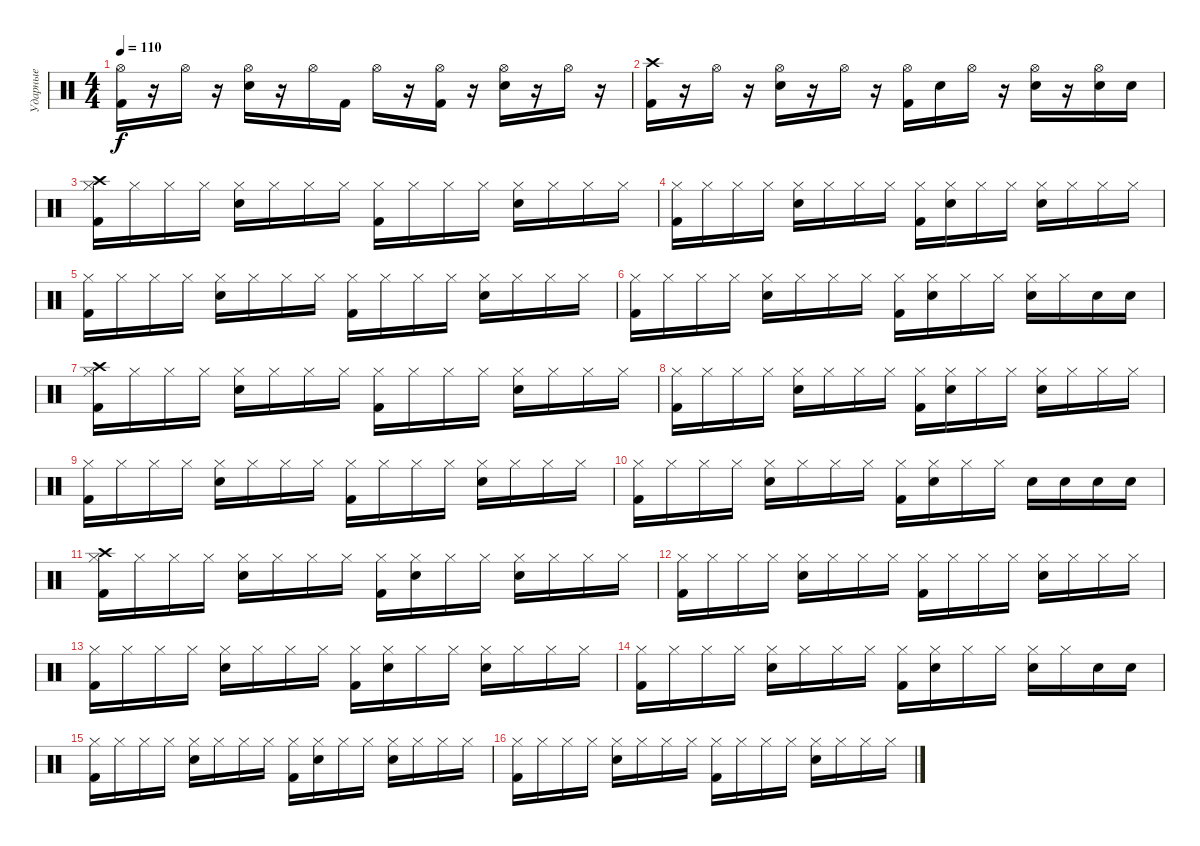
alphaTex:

\track ("Ударные" "Ударные") {instrument percussion}
\staff {score}
\articulation defaults
\ts (4 4)
\tempo 110
\clef neutral
\ks c
("Hi-Hat (open)" "Kick (hit) 2").16{dy f} r.16 "Hi-Hat (open)".16 r.16 ("Hi-Hat (open)" "Snare (hit) 2").16 r.16 "Hi-Hat (open)".16 "Kick (hit) 2".16 "Hi-Hat (open)".16 r.16 ("Hi-Hat (open)" "Kick (hit) 2").16 r.16 ("Hi-Hat (open)" "Snare (hit) 2").16 r.16 "Hi-Hat (open)".16 r.16 |
("Crash high (hit)" "Kick (hit) 2").16 r.16 "Hi-Hat (open)".16 r.16 ("Hi-Hat (open)" "Snare (hit) 2").16 r.16 "Hi-Hat (open)".16 r.16 ("Hi-Hat (open)" "Kick (hit) 2").16 "Snare (hit) 2".16 "Hi-Hat (open)".16 r.16 ("Hi-Hat (open)" "Snare (hit) 2").16 r.16 ("Hi-Hat (open)" "Snare (hit) 2").16 "Snare (hit) 2".16 |
("Crash high (hit)" "Hi-Hat (closed)" "Kick (hit) 2").16 "Hi-Hat (closed)".16 "Hi-Hat (closed)".16 "Hi-Hat (closed)".16 ("Hi-Hat (closed)" "Snare (hit) 2").16 "Hi-Hat (closed)".16 "Hi-Hat (closed)".16 "Hi-Hat (closed)".16 ("Hi-Hat (closed)" "Kick (hit) 2").16 "Hi-Hat (closed)".16 "Hi-Hat (closed)".16 "Hi-Hat (closed)".16 ("Hi-Hat (closed)" "Snare (hit) 2").16 "Hi-Hat (closed)".16 "Hi-Hat (closed)".16 "Hi-Hat (closed)".16 |
("Hi-Hat (closed)" "Kick (hit) 2").16 "Hi-Hat (closed)".16 "Hi-Hat (closed)".16 "Hi-Hat (closed)".16 ("Hi-Hat (closed)" "Snare (hit) 2").16 "Hi-Hat (closed)".16 "Hi-Hat (closed)".16 "Hi-Hat (closed)".16 ("Hi-Hat (closed)" "Kick (hit) 2").16 ("Hi-Hat (closed)" "Snare (hit) 2").16 "Hi-Hat (closed)".16 "Hi-Hat (closed)".16 ("Hi-Hat (closed)" "Snare (hit) 2").16 "Hi-Hat (closed)".16 "Hi-Hat (closed)".16 "Hi-Hat (closed)".16 |
("Hi-Hat (closed)" "Kick (hit) 2").16 "Hi-Hat (closed)".16 "Hi-Hat (closed)".16 "Hi-Hat (closed)".16 ("Hi-Hat (closed)" "Snare (hit) 2").16 "Hi-Hat (closed)".16 "Hi-Hat (closed)".16 "Hi-Hat (closed)".16 ("Hi-Hat (closed)" "Kick (hit) 2").16 "Hi-Hat (closed)".16 "Hi-Hat (closed)".16 "Hi-Hat (closed)".16 ("Hi-Hat (closed)" "Snare (hit) 2").16 "Hi-Hat (closed)".16 "Hi-Hat (closed)".16 "Hi-Hat (closed)".16 |
("Hi-Hat (closed)" "Kick (hit) 2").16 "Hi-Hat (closed)".16 "Hi-Hat (closed)".16 "Hi-Hat (closed)".16 ("Hi-Hat (closed)" "Snare (hit) 2").16 "Hi-Hat (closed)".16 "Hi-Hat (closed)".16 "Hi-Hat (closed)".16 ("Hi-Hat (closed)" "Kick (hit) 2").16 ("Hi-Hat (closed)" "Snare (hit) 2").16 "Hi-Hat (closed)".16 "Hi-Hat (closed)".16 ("Hi-Hat (closed)" "Snare (hit) 2").16 "Hi-Hat (closed)".16 "Snare (hit) 2".16 "Snare (hit) 2".16 |
("Crash high (hit)" "Hi-Hat (closed)" "Kick (hit) 2").16 "Hi-Hat (closed)".16 "Hi-Hat (closed)".16 "Hi-Hat (closed)".16 ("Hi-Hat (closed)" "Snare (hit) 2").16 "Hi-Hat (closed)".16 "Hi-Hat (closed)".16 "Hi-Hat (closed)".16 ("Hi-Hat (closed)" "Kick (hit) 2").16 "Hi-Hat (closed)".16 "Hi-Hat (closed)".16 "Hi-Hat (closed)".16 ("Hi-Hat (closed)" "Snare (hit) 2").16 "Hi-Hat (closed)".16 "Hi-Hat (closed)".16 "Hi-Hat (closed)".16 |
("Hi-Hat (closed)" "Kick (hit) 2").16 "Hi-Hat (closed)".16 "Hi-Hat (closed)".16 "Hi-Hat (closed)".16 ("Hi-Hat (closed)" "Snare (hit) 2").16 "Hi-Hat (closed)".16 "Hi-Hat (closed)".16 "Hi-Hat (closed)".16 ("Hi-Hat (closed)" "Kick (hit) 2").16 ("Hi-Hat (closed)" "Snare (hit) 2").16 "Hi-Hat (closed)".16 "Hi-Hat (closed)".16 ("Hi-Hat (closed)" "Snare (hit) 2").16 "Hi-Hat (closed)".16 "Hi-Hat (closed)".16 "Hi-Hat (closed)".16 |
("Hi-Hat (closed)" "Kick (hit) 2").16 "Hi-Hat (closed)".16 "Hi-Hat (closed)".16 "Hi-Hat (closed)".16 ("Hi-Hat (closed)" "Snare (hit) 2").16 "Hi-Hat (closed)".16 "Hi-Hat (closed)".16 "Hi-Hat (closed)".16 ("Hi-Hat (closed)" "Kick (hit) 2").16 "Hi-Hat (closed)".16 "Hi-Hat (closed)".16 "Hi-Hat (closed)".16 ("Hi-Hat (closed)" "Snare (hit) 2").16 "Hi-Hat (closed)".16 "Hi-Hat (closed)".16 "Hi-Hat (closed)".16 |
("Hi-Hat (closed)" "Kick (hit) 2").16 "Hi-Hat (closed)".16 "Hi-Hat (closed)".16 "Hi-Hat (closed)".16 ("Hi-Hat (closed)" "Snare (hit) 2").16 "Hi-Hat (closed)".16 "Hi-Hat (closed)".16 "Hi-Hat (closed)".16 ("Hi-Hat (closed)" "Kick (hit) 2").16 ("Hi-Hat (closed)" "Snare (hit) 2").16 "Hi-Hat (closed)".16 "Hi-Hat (closed)".16 "Snare (hit) 2".16 "Snare (hit) 2".16 "Snare (hit) 2".16 "Snare (hit) 2".16 |
("Crash high (hit)" "Hi-Hat (closed)" "Kick (hit) 2").16 "Hi-Hat (closed)".16 "Hi-Hat (closed)".16 "Hi-Hat (closed)".16 ("Hi-Hat (closed)" "Snare (hit) 2").16 "Hi-Hat (closed)".16 "Hi-Hat (closed)".16 "Hi-Hat (closed)".16 ("Hi-Hat (closed)" "Kick (hit) 2").16 ("Hi-Hat (closed)" "Snare (hit) 2").16 "Hi-Hat (closed)".16 "Hi-Hat (closed)".16 ("Hi-Hat (closed)" "Snare (hit) 2").16 "Hi-Hat (closed)".16 "Hi-Hat (closed)".16 "Hi-Hat (closed)".16 |
("Hi-Hat (closed)" "Kick (hit) 2").16 "Hi-Hat (closed)".16 "Hi-Hat (closed)".16 "Hi-Hat (closed)".16 ("Hi-Hat (closed)" "Snare (hit) 2").16 "Hi-Hat (closed)".16 "Hi-Hat (closed)".16 "Hi-Hat (closed)".16 ("Hi-Hat (closed)" "Kick (hit) 2").16 "Hi-Hat (closed)".16 "Hi-Hat (closed)".16 "Hi-Hat (closed)".16 ("Hi-Hat (closed)" "Snare (hit) 2").16 "Hi-Hat (closed)".16 "Hi-Hat (closed)".16 "Hi-Hat (closed)".16 |
("Hi-Hat (closed)" "Kick (hit) 2").16 "Hi-Hat (closed)".16 "Hi-Hat (closed)".16 "Hi-Hat (closed)".16 ("Hi-Hat (closed)" "Snare (hit) 2").16 "Hi-Hat (closed)".16 "Hi-Hat (closed)".16 "Hi-Hat (closed)".16 ("Hi-Hat (closed)" "Kick (hit) 2").16 ("Hi-Hat (closed)" "Snare (hit) 2").16 "Hi-Hat (closed)".16 "Hi-Hat (closed)".16 ("Hi-Hat (closed)" "Snare (hit) 2").16 "Hi-Hat (closed)".16 "Hi-Hat (closed)".16 "Hi-Hat (closed)".16 |
("Hi-Hat (closed)" "Kick (hit) 2").16 "Hi-Hat (closed)".16 "Hi-Hat (closed)".16 "Hi-Hat (closed)".16 ("Hi-Hat (closed)" "Snare (hit) 2").16 "Hi-Hat (closed)".16 "Hi-Hat (closed)".16 "Hi-Hat (closed)".16 ("Hi-Hat (closed)" "Kick (hit) 2").16 ("Hi-Hat (closed)" "Snare (hit) 2").16 "Hi-Hat (closed)".16 "Hi-Hat (closed)".16 ("Hi-Hat (closed)" "Snare (hit) 2").16 "Hi-Hat (closed)".16 "Snare (hit) 2".16 "Snare (hit) 2".16 |
("Hi-Hat (closed)" "Kick (hit) 2").16 "Hi-Hat (closed)".16 "Hi-Hat (closed)".16 "Hi-Hat (closed)".16 ("Hi-Hat (closed)" "Snare (hit) 2").16 "Hi-Hat (closed)".16 "Hi-Hat (closed)".16 "Hi-Hat (closed)".16 ("Hi-Hat (closed)" "Kick (hit) 2").16 ("Hi-Hat (closed)" "Snare (hit) 2").16 "Hi-Hat (closed)".16 "Hi-Hat (closed)".16 ("Hi-Hat (closed)" "Snare (hit) 2").16 "Hi-Hat (closed)".16 "Hi-Hat (closed)".16 "Hi-Hat (closed)".16 |
("Hi-Hat (closed)" "Kick (hit) 2").16 "Hi-Hat (closed)".16 "Hi-Hat (closed)".16 "Hi-Hat (closed)".16 ("Hi-Hat (closed)" "Snare (hit) 2").16 "Hi-Hat (closed)".16 "Hi-Hat (closed)".16 "Hi-Hat (closed)".16 ("Hi-Hat (closed)" "Kick (hit) 2").16 "Hi-Hat (closed)".16 "Hi-Hat (closed)".16 "Hi-Hat (closed)".16 ("Hi-Hat (closed)" "Snare (hit) 2").16 "Hi-Hat (closed)".16 "Hi-Hat (closed)".16 "Hi-Hat (closed)".16
